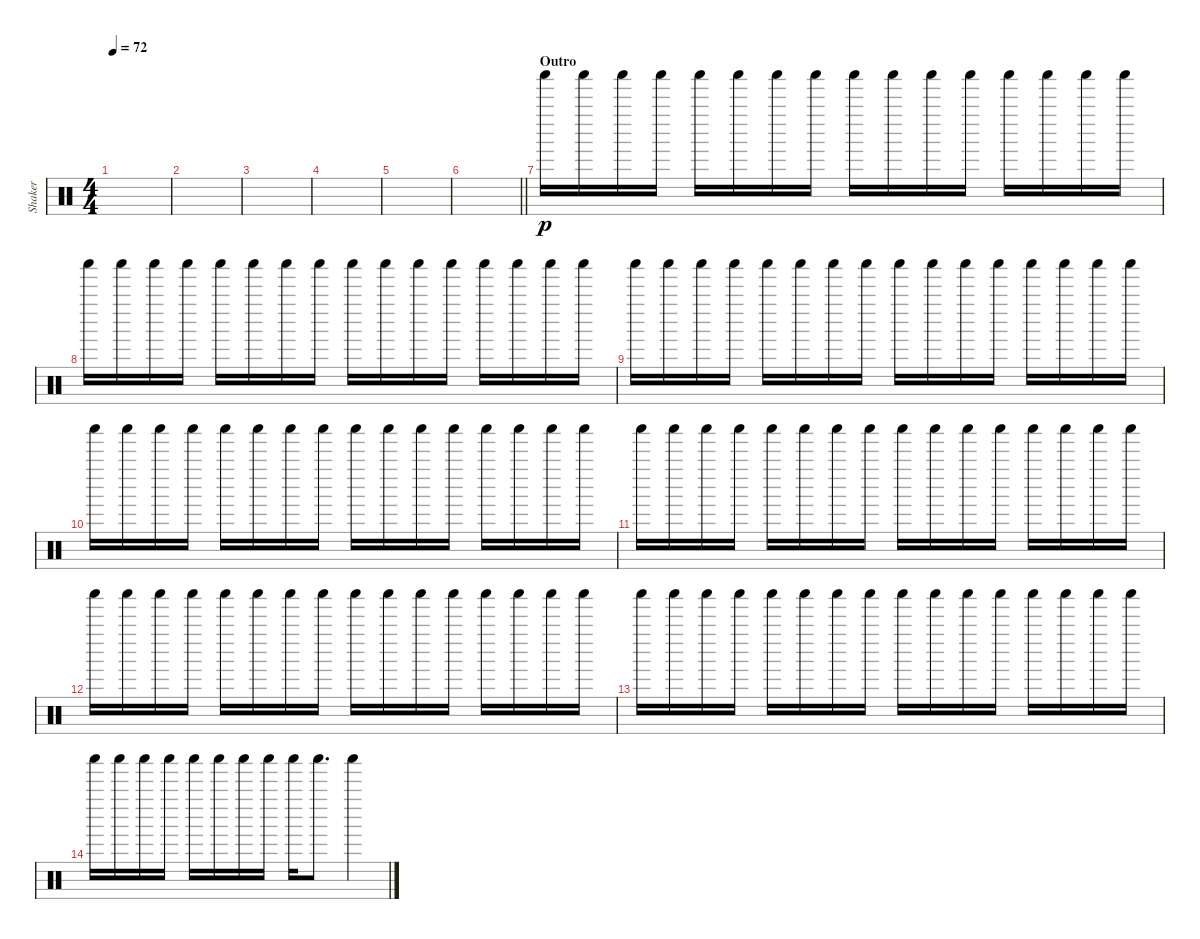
\track ("Shaker" "Shaker") {instrument percussion}
\staff {score}
\articulation defaults
\ts (4 4)
\tempo 72
\clef neutral
\ks c
|
|
|
|
|
\barLineRight lightlight
|
\section ("" "Outro")
"Shaker (hit)".16{dy p} "Shaker (hit)".16 "Shaker (hit)".16 "Shaker (hit)".16 "Shaker (hit)".16 "Shaker (hit)".16 "Shaker (hit)".16 "Shaker (hit)".16 "Shaker (hit)".16 "Shaker (hit)".16 "Shaker (hit)".16 "Shaker (hit)".16 "Shaker (hit)".16 "Shaker (hit)".16 "Shaker (hit)".16 "Shaker (hit)".16 |
"Shaker (hit)".16 "Shaker (hit)".16 "Shaker (hit)".16 "Shaker (hit)".16 "Shaker (hit)".16 "Shaker (hit)".16 "Shaker (hit)".16 "Shaker (hit)".16 "Shaker (hit)".16 "Shaker (hit)".16 "Shaker (hit)".16 "Shaker (hit)".16 "Shaker (hit)".16 "Shaker (hit)".16 "Shaker (hit)".16 "Shaker (hit)".16 |
"Shaker (hit)".16 "Shaker (hit)".16 "Shaker (hit)".16 "Shaker (hit)".16 "Shaker (hit)".16 "Shaker (hit)".16 "Shaker (hit)".16 "Shaker (hit)".16 "Shaker (hit)".16 "Shaker (hit)".16 "Shaker (hit)".16 "Shaker (hit)".16 "Shaker (hit)".16 "Shaker (hit)".16 "Shaker (hit)".16 "Shaker (hit)".16 |
"Shaker (hit)".16 "Shaker (hit)".16 "Shaker (hit)".16 "Shaker (hit)".16 "Shaker (hit)".16 "Shaker (hit)".16 "Shaker (hit)".16 "Shaker (hit)".16 "Shaker (hit)".16 "Shaker (hit)".16 "Shaker (hit)".16 "Shaker (hit)".16 "Shaker (hit)".16 "Shaker (hit)".16 "Shaker (hit)".16 "Shaker (hit)".16 |
"Shaker (hit)".16 "Shaker (hit)".16 "Shaker (hit)".16 "Shaker (hit)".16 "Shaker (hit)".16 "Shaker (hit)".16 "Shaker (hit)".16 "Shaker (hit)".16 "Shaker (hit)".16 "Shaker (hit)".16 "Shaker (hit)".16 "Shaker (hit)".16 "Shaker (hit)".16 "Shaker (hit)".16 "Shaker (hit)".16 "Shaker (hit)".16 |
"Shaker (hit)".16 "Shaker (hit)".16 "Shaker (hit)".16 "Shaker (hit)".16 "Shaker (hit)".16 "Shaker (hit)".16 "Shaker (hit)".16 "Shaker (hit)".16 "Shaker (hit)".16 "Shaker (hit)".16 "Shaker (hit)".16 "Shaker (hit)".16 "Shaker (hit)".16 "Shaker (hit)".16 "Shaker (hit)".16 "Shaker (hit)".16 |
"Shaker (hit)".16 "Shaker (hit)".16 "Shaker (hit)".16 "Shaker (hit)".16 "Shaker (hit)".16 "Shaker (hit)".16 "Shaker (hit)".16 "Shaker (hit)".16 "Shaker (hit)".16 "Shaker (hit)".16 "Shaker (hit)".16 "Shaker (hit)".16 "Shaker (hit)".16 "Shaker (hit)".16 "Shaker (hit)".16 "Shaker (hit)".16 |
"Shaker (hit)".16 "Shaker (hit)".16 "Shaker (hit)".16 "Shaker (hit)".16 "Shaker (hit)".16 "Shaker (hit)".16 "Shaker (hit)".16 "Shaker (hit)".16 "Shaker (hit)".16 "Shaker (hit)".8{d} "Shaker (hit)".4
